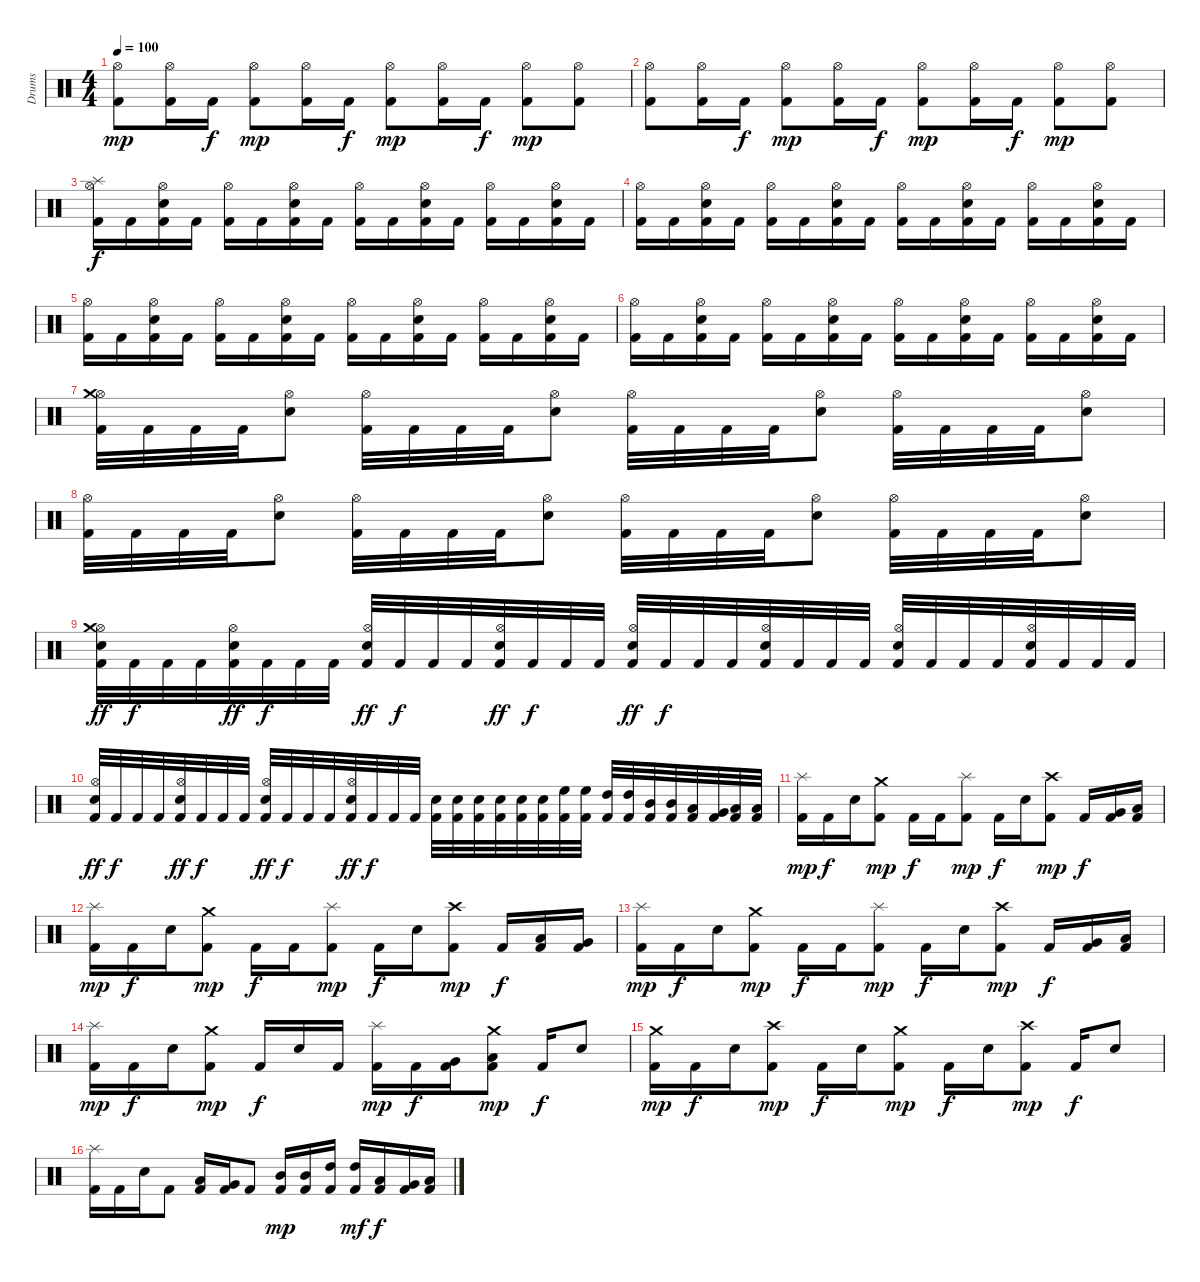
\track ("Drums" "Drums") {instrument percussion}
\staff {score}
\articulation defaults
\ts (4 4)
\tempo 100
\clef neutral
\ks c
("Kick (hit) 2" "Hi-Hat (open)").8{dy mp} ("Kick (hit) 2" "Hi-Hat (open)").16 "Kick (hit) 2".16{dy f} ("Kick (hit) 2" "Hi-Hat (open)").8{dy mp} ("Kick (hit) 2" "Hi-Hat (open)").16 "Kick (hit) 2".16{dy f} ("Kick (hit) 2" "Hi-Hat (open)").8{dy mp} ("Kick (hit) 2" "Hi-Hat (open)").16 "Kick (hit) 2".16{dy f} ("Kick (hit) 2" "Hi-Hat (open)").8{dy mp} ("Kick (hit) 2" "Hi-Hat (open)").8 |
("Kick (hit) 2" "Hi-Hat (open)").8 ("Kick (hit) 2" "Hi-Hat (open)").16 "Kick (hit) 2".16{dy f} ("Kick (hit) 2" "Hi-Hat (open)").8{dy mp} ("Kick (hit) 2" "Hi-Hat (open)").16 "Kick (hit) 2".16{dy f} ("Kick (hit) 2" "Hi-Hat (open)").8{dy mp} ("Kick (hit) 2" "Hi-Hat (open)").16 "Kick (hit) 2".16{dy f} ("Kick (hit) 2" "Hi-Hat (open)").8{dy mp} ("Kick (hit) 2" "Hi-Hat (open)").8 |
\section ("" "")
("Kick (hit) 2" "Hi-Hat (open)" "Splash (hit)").16{dy f} "Kick (hit) 2".16 ("Kick (hit) 2" "Electric Snare (hit)" "Hi-Hat (open)").16 "Kick (hit) 2".16 ("Kick (hit) 2" "Hi-Hat (open)").16 "Kick (hit) 2".16 ("Kick (hit) 2" "Electric Snare (hit)" "Hi-Hat (open)").16 "Kick (hit) 2".16 ("Kick (hit) 2" "Hi-Hat (open)").16 "Kick (hit) 2".16 ("Kick (hit) 2" "Electric Snare (hit)" "Hi-Hat (open)").16 "Kick (hit) 2".16 ("Kick (hit) 2" "Hi-Hat (open)").16 "Kick (hit) 2".16 ("Kick (hit) 2" "Electric Snare (hit)" "Hi-Hat (open)").16 "Kick (hit) 2".16 |
("Kick (hit) 2" "Hi-Hat (open)").16 "Kick (hit) 2".16 ("Kick (hit) 2" "Electric Snare (hit)" "Hi-Hat (open)").16 "Kick (hit) 2".16 ("Kick (hit) 2" "Hi-Hat (open)").16 "Kick (hit) 2".16 ("Kick (hit) 2" "Electric Snare (hit)" "Hi-Hat (open)").16 "Kick (hit) 2".16 ("Kick (hit) 2" "Hi-Hat (open)").16 "Kick (hit) 2".16 ("Kick (hit) 2" "Electric Snare (hit)" "Hi-Hat (open)").16 "Kick (hit) 2".16 ("Kick (hit) 2" "Hi-Hat (open)").16 "Kick (hit) 2".16 ("Kick (hit) 2" "Electric Snare (hit)" "Hi-Hat (open)").16 "Kick (hit) 2".16 |
("Kick (hit) 2" "Hi-Hat (open)").16 "Kick (hit) 2".16 ("Kick (hit) 2" "Electric Snare (hit)" "Hi-Hat (open)").16 "Kick (hit) 2".16 ("Kick (hit) 2" "Hi-Hat (open)").16 "Kick (hit) 2".16 ("Kick (hit) 2" "Electric Snare (hit)" "Hi-Hat (open)").16 "Kick (hit) 2".16 ("Kick (hit) 2" "Hi-Hat (open)").16 "Kick (hit) 2".16 ("Kick (hit) 2" "Electric Snare (hit)" "Hi-Hat (open)").16 "Kick (hit) 2".16 ("Kick (hit) 2" "Hi-Hat (open)").16 "Kick (hit) 2".16 ("Kick (hit) 2" "Electric Snare (hit)" "Hi-Hat (open)").16 "Kick (hit) 2".16 |
("Kick (hit) 2" "Hi-Hat (open)").16 "Kick (hit) 2".16 ("Kick (hit) 2" "Electric Snare (hit)" "Hi-Hat (open)").16 "Kick (hit) 2".16 ("Kick (hit) 2" "Hi-Hat (open)").16 "Kick (hit) 2".16 ("Kick (hit) 2" "Electric Snare (hit)" "Hi-Hat (open)").16 "Kick (hit) 2".16 ("Kick (hit) 2" "Hi-Hat (open)").16 "Kick (hit) 2".16 ("Kick (hit) 2" "Electric Snare (hit)" "Hi-Hat (open)").16 "Kick (hit) 2".16 ("Kick (hit) 2" "Hi-Hat (open)").16 "Kick (hit) 2".16 ("Kick (hit) 2" "Electric Snare (hit)" "Hi-Hat (open)").16 "Kick (hit) 2".16 |
("Kick (hit) 2" "Hi-Hat (open)" "Crash medium (hit)").32 "Kick (hit) 2".32 "Kick (hit) 2".32 "Kick (hit) 2".32 ("Electric Snare (hit)" "Hi-Hat (open)").8 ("Kick (hit) 2" "Hi-Hat (open)").32 "Kick (hit) 2".32 "Kick (hit) 2".32 "Kick (hit) 2".32 ("Electric Snare (hit)" "Hi-Hat (open)").8 ("Kick (hit) 2" "Hi-Hat (open)").32 "Kick (hit) 2".32 "Kick (hit) 2".32 "Kick (hit) 2".32 ("Electric Snare (hit)" "Hi-Hat (open)").8 ("Kick (hit) 2" "Hi-Hat (open)").32 "Kick (hit) 2".32 "Kick (hit) 2".32 "Kick (hit) 2".32 ("Electric Snare (hit)" "Hi-Hat (open)").8 |
("Kick (hit) 2" "Hi-Hat (open)").32 "Kick (hit) 2".32 "Kick (hit) 2".32 "Kick (hit) 2".32 ("Electric Snare (hit)" "Hi-Hat (open)").8 ("Kick (hit) 2" "Hi-Hat (open)").32 "Kick (hit) 2".32 "Kick (hit) 2".32 "Kick (hit) 2".32 ("Electric Snare (hit)" "Hi-Hat (open)").8 ("Kick (hit) 2" "Hi-Hat (open)").32 "Kick (hit) 2".32 "Kick (hit) 2".32 "Kick (hit) 2".32 ("Electric Snare (hit)" "Hi-Hat (open)").8 ("Kick (hit) 2" "Hi-Hat (open)").32 "Kick (hit) 2".32 "Kick (hit) 2".32 "Kick (hit) 2".32 ("Electric Snare (hit)" "Hi-Hat (open)").8 |
("Kick (hit) 2" "Electric Snare (hit)" "Hi-Hat (open)" "Crash medium (hit)").32{dy ff} "Kick (hit) 2".32{dy f} "Kick (hit) 2".32 "Kick (hit) 2".32 ("Kick (hit) 2" "Electric Snare (hit)" "Hi-Hat (open)").32{dy ff} "Kick (hit) 2".32{dy f} "Kick (hit) 2".32 "Kick (hit) 2".32 ("Kick (hit) 2" "Electric Snare (hit)" "Hi-Hat (open)").32{dy ff} "Kick (hit) 2".32{dy f} "Kick (hit) 2".32 "Kick (hit) 2".32 ("Kick (hit) 2" "Electric Snare (hit)" "Hi-Hat (open)").32{dy ff} "Kick (hit) 2".32{dy f} "Kick (hit) 2".32 "Kick (hit) 2".32 ("Kick (hit) 2" "Electric Snare (hit)" "Hi-Hat (open)").32{dy ff} "Kick (hit) 2".32{dy f} "Kick (hit) 2".32 "Kick (hit) 2".32 ("Kick (hit) 2" "Electric Snare (hit)" "Hi-Hat (open)").32 "Kick (hit) 2".32 "Kick (hit) 2".32 "Kick (hit) 2".32 ("Kick (hit) 2" "Electric Snare (hit)" "Hi-Hat (open)").32 "Kick (hit) 2".32 "Kick (hit) 2".32 "Kick (hit) 2".32 ("Kick (hit) 2" "Electric Snare (hit)" "Hi-Hat (open)").32 "Kick (hit) 2".32 "Kick (hit) 2".32 "Kick (hit) 2".32 |
("Kick (hit) 2" "Electric Snare (hit)" "Hi-Hat (open)").32{dy ff} "Kick (hit) 2".32{dy f} "Kick (hit) 2".32 "Kick (hit) 2".32 ("Kick (hit) 2" "Electric Snare (hit)" "Hi-Hat (open)").32{dy ff} "Kick (hit) 2".32{dy f} "Kick (hit) 2".32 "Kick (hit) 2".32 ("Kick (hit) 2" "Electric Snare (hit)" "Hi-Hat (open)").32{dy ff} "Kick (hit) 2".32{dy f} "Kick (hit) 2".32 "Kick (hit) 2".32 ("Kick (hit) 2" "Electric Snare (hit)" "Hi-Hat (open)").32{dy ff} "Kick (hit) 2".32{dy f} "Kick (hit) 2".32 "Kick (hit) 2".32 ("Kick (hit) 2" "Electric Snare (hit)").32 ("Kick (hit) 2" "Electric Snare (hit)").32 ("Kick (hit) 2" "Electric Snare (hit)").32 ("Kick (hit) 2" "Electric Snare (hit)").32 ("Kick (hit) 2" "Electric Snare (hit)").32 ("Kick (hit) 2" "Electric Snare (hit)").32 ("Kick (hit) 2" "High Floor Tom (hit)").32 ("Kick (hit) 2" "High Floor Tom (hit)").32 ("Kick (hit) 2" "High Tom (hit)").32 ("Kick (hit) 2" "High Tom (hit)").32 ("Kick (hit) 2" "Mid Tom (hit)").32 ("Kick (hit) 2" "Mid Tom (hit)").32 ("Kick (hit) 2" "Low Tom (hit)").32 ("Kick (hit) 2" "Very Low Tom (hit)").32 ("Kick (hit) 2" "Low Floor Tom (hit)").32 ("Kick (hit) 2" "Low Floor Tom (hit)").32 |
("Kick (hit) 2" "Splash (hit)").16{dy mp} "Kick (hit) 2".16{dy f} "Electric Snare (hit)".16 ("Kick (hit) 2" "Crash medium (hit)").8{dy mp} "Kick (hit) 2".16{dy f} "Kick (hit) 2".16 ("Kick (hit) 2" "Splash (hit)").8{dy mp} "Kick (hit) 2".16{dy f} "Electric Snare (hit)".16 ("Kick (hit) 2" "Crash high (hit)").8{dy mp} "Kick (hit) 2".16{dy f} ("Kick (hit) 2" "Very Low Tom (hit)").16 ("Kick (hit) 2" "Low Floor Tom (hit)").16 |
("Kick (hit) 2" "Splash (hit)").16{dy mp} "Kick (hit) 2".16{dy f} "Electric Snare (hit)".16 ("Kick (hit) 2" "Crash medium (hit)").8{dy mp} "Kick (hit) 2".16{dy f} "Kick (hit) 2".16 ("Kick (hit) 2" "Splash (hit)").8{dy mp} "Kick (hit) 2".16{dy f} "Electric Snare (hit)".16 ("Kick (hit) 2" "Crash high (hit)").8{dy mp} "Kick (hit) 2".16{dy f} ("Kick (hit) 2" "Low Tom (hit)").16 ("Kick (hit) 2" "Very Low Tom (hit)").16 |
("Kick (hit) 2" "Splash (hit)").16{dy mp} "Kick (hit) 2".16{dy f} "Electric Snare (hit)".16 ("Kick (hit) 2" "Crash medium (hit)").8{dy mp} "Kick (hit) 2".16{dy f} "Kick (hit) 2".16 ("Kick (hit) 2" "Splash (hit)").8{dy mp} "Kick (hit) 2".16{dy f} "Electric Snare (hit)".16 ("Kick (hit) 2" "Crash high (hit)").8{dy mp} "Kick (hit) 2".16{dy f} ("Kick (hit) 2" "Very Low Tom (hit)").16 ("Kick (hit) 2" "Low Floor Tom (hit)").16 |
("Kick (hit) 2" "Splash (hit)").16{dy mp} "Kick (hit) 2".16{dy f} "Electric Snare (hit)".16 ("Kick (hit) 2" "Crash medium (hit)").8{dy mp} "Kick (hit) 2".16{dy f} "Electric Snare (hit)".16 "Kick (hit) 2".16 ("Kick (hit) 2" "Splash (hit)").16{dy mp} "Kick (hit) 2".16{dy f} ("Kick (hit) 2" "Very Low Tom (hit)").16 ("Kick (hit) 2" "Low Floor Tom (hit)" "Crash medium (hit)").8{dy mp} "Kick (hit) 2".16{dy f} "Electric Snare (hit)".8 |
("Kick (hit) 2" "Crash medium (hit)").16{dy mp} "Kick (hit) 2".16{dy f} "Electric Snare (hit)".16 ("Kick (hit) 2" "Crash high (hit)").8{dy mp} "Kick (hit) 2".16{dy f} "Electric Snare (hit)".16 ("Kick (hit) 2" "Crash medium (hit)").8{dy mp} "Kick (hit) 2".16{dy f} "Electric Snare (hit)".16 ("Kick (hit) 2" "Crash high (hit)").8{dy mp} "Kick (hit) 2".16{dy f} "Electric Snare (hit)".8 |
("Kick (hit) 2" "Splash (hit)").16 "Kick (hit) 2".16 "Electric Snare (hit)".16 "Kick (hit) 2".8 ("Kick (hit) 2" "Low Tom (hit)").16 ("Kick (hit) 2" "Very Low Tom (hit)").16 "Kick (hit) 2".8 ("Kick (hit) 2" "Mid Tom (hit)").16{dy mp} ("Kick (hit) 2" "Mid Tom (hit)").16 ("Kick (hit) 2" "High Tom (hit)").16 ("Kick (hit) 2" "High Tom (hit)").16{dy mf} ("Kick (hit) 2" "Low Tom (hit)").16{dy f} ("Kick (hit) 2" "Very Low Tom (hit)").16 ("Kick (hit) 2" "Low Floor Tom (hit)").16
